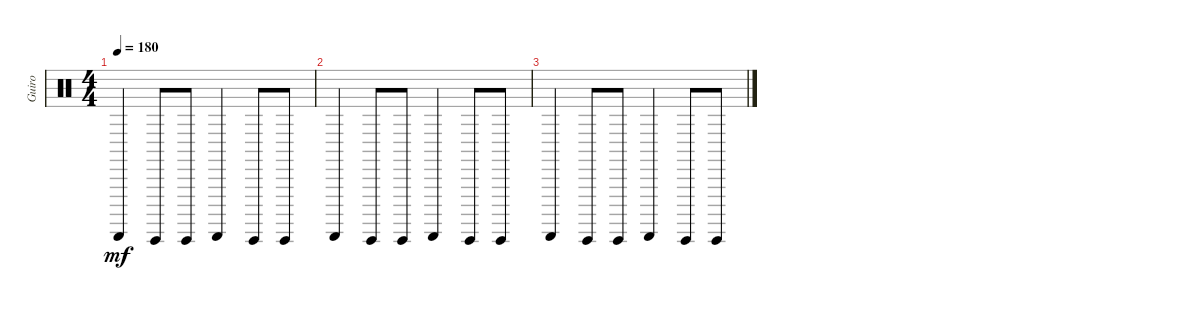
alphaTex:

\track ("Guiro" "Guiro") {instrument percussion}
\staff {score}
\articulation defaults
\ts (4 4)
\tempo 180
\clef neutral
\ks c "Guiro (scrap-return)".4{dy mf} "Guiro (hit)".8 "Guiro (hit)".8 "Guiro (scrap-return)".4 "Guiro (hit)".8 "Guiro (hit)".8
|
"Guiro (scrap-return)".4 "Guiro (hit)".8 "Guiro (hit)".8 "Guiro (scrap-return)".4 "Guiro (hit)".8 "Guiro (hit)".8 |
"Guiro (scrap-return)".4 "Guiro (hit)".8 "Guiro (hit)".8 "Guiro (scrap-return)".4 "Guiro (hit)".8 "Guiro (hit)".8
